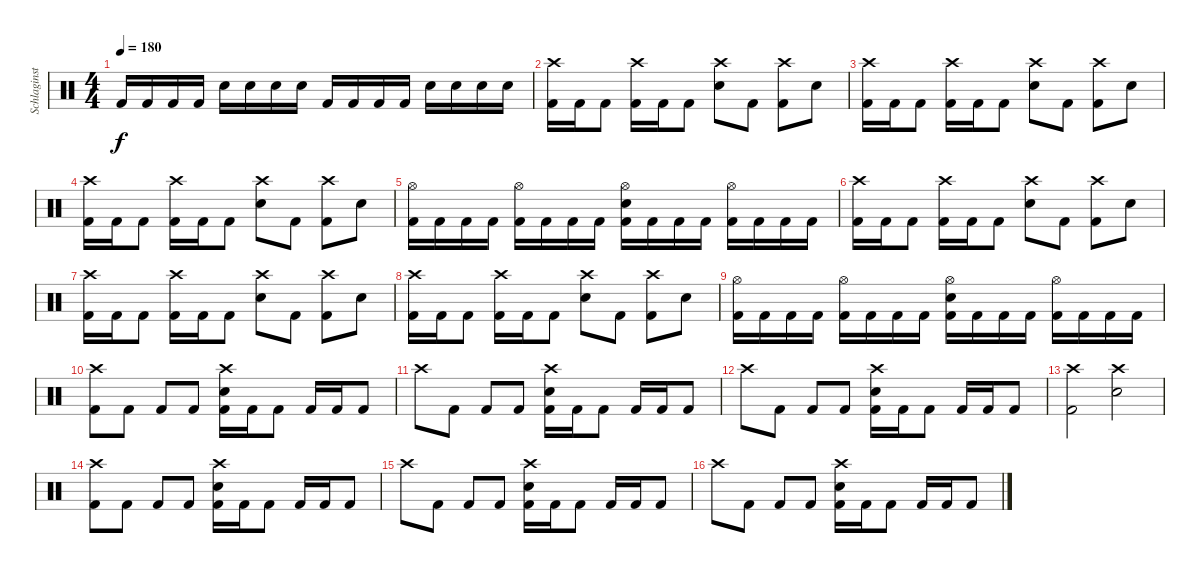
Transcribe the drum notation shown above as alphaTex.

\track ("Schlaginstrumente - Auswahl" "Schlaginst") {instrument percussion}
\staff {score}
\articulation defaults
\ts (4 4)
\tempo 180
\clef neutral
\ks c "Kick (hit) 2".16{dy f} "Kick (hit) 2".16 "Kick (hit) 2".16 "Kick (hit) 2".16 "Snare (hit) 2".16 "Snare (hit) 2".16 "Snare (hit) 2".16 "Snare (hit) 2".16 "Kick (hit) 2".16 "Kick (hit) 2".16 "Kick (hit) 2".16 "Kick (hit) 2".16 "Snare (hit) 2".16 "Snare (hit) 2".16 "Snare (hit) 2".16 "Snare (hit) 2".16
|
("Crash high (hit)" "Kick (hit) 2").16 "Kick (hit) 2".16 "Kick (hit) 2".8 ("Crash high (hit)" "Kick (hit) 2").16 "Kick (hit) 2".16 "Kick (hit) 2".8 ("Crash high (hit)" "Snare (hit) 2").8 "Kick (hit) 2".8 ("Crash high (hit)" "Kick (hit) 2").8 "Snare (hit) 2".8 |
("Crash high (hit)" "Kick (hit) 2").16 "Kick (hit) 2".16 "Kick (hit) 2".8 ("Crash high (hit)" "Kick (hit) 2").16 "Kick (hit) 2".16 "Kick (hit) 2".8 ("Crash high (hit)" "Snare (hit) 2").8 "Kick (hit) 2".8 ("Crash high (hit)" "Kick (hit) 2").8 "Snare (hit) 2".8 |
("Crash high (hit)" "Kick (hit) 2").16 "Kick (hit) 2".16 "Kick (hit) 2".8 ("Crash high (hit)" "Kick (hit) 2").16 "Kick (hit) 2".16 "Kick (hit) 2".8 ("Crash high (hit)" "Snare (hit) 2").8 "Kick (hit) 2".8 ("Crash high (hit)" "Kick (hit) 2").8 "Snare (hit) 2".8 |
("Hi-Hat (open)" "Kick (hit) 2").16 "Kick (hit) 2".16 "Kick (hit) 2".16 "Kick (hit) 2".16 ("Hi-Hat (open)" "Kick (hit) 2").16 "Kick (hit) 2".16 "Kick (hit) 2".16 "Kick (hit) 2".16 ("Hi-Hat (open)" "Snare (hit) 2" "Kick (hit) 2").16 "Kick (hit) 2".16 "Kick (hit) 2".16 "Kick (hit) 2".16 ("Hi-Hat (open)" "Kick (hit) 2").16 "Kick (hit) 2".16 "Kick (hit) 2".16 "Kick (hit) 2".16 |
("Crash high (hit)" "Kick (hit) 2").16 "Kick (hit) 2".16 "Kick (hit) 2".8 ("Crash high (hit)" "Kick (hit) 2").16 "Kick (hit) 2".16 "Kick (hit) 2".8 ("Crash high (hit)" "Snare (hit) 2").8 "Kick (hit) 2".8 ("Crash high (hit)" "Kick (hit) 2").8 "Snare (hit) 2".8 |
("Crash high (hit)" "Kick (hit) 2").16 "Kick (hit) 2".16 "Kick (hit) 2".8 ("Crash high (hit)" "Kick (hit) 2").16 "Kick (hit) 2".16 "Kick (hit) 2".8 ("Crash high (hit)" "Snare (hit) 2").8 "Kick (hit) 2".8 ("Crash high (hit)" "Kick (hit) 2").8 "Snare (hit) 2".8 |
("Crash high (hit)" "Kick (hit) 2").16 "Kick (hit) 2".16 "Kick (hit) 2".8 ("Crash high (hit)" "Kick (hit) 2").16 "Kick (hit) 2".16 "Kick (hit) 2".8 ("Crash high (hit)" "Snare (hit) 2").8 "Kick (hit) 2".8 ("Crash high (hit)" "Kick (hit) 2").8 "Snare (hit) 2".8 |
("Hi-Hat (open)" "Kick (hit) 2").16 "Kick (hit) 2".16 "Kick (hit) 2".16 "Kick (hit) 2".16 ("Hi-Hat (open)" "Kick (hit) 2").16 "Kick (hit) 2".16 "Kick (hit) 2".16 "Kick (hit) 2".16 ("Hi-Hat (open)" "Snare (hit) 2" "Kick (hit) 2").16 "Kick (hit) 2".16 "Kick (hit) 2".16 "Kick (hit) 2".16 ("Hi-Hat (open)" "Kick (hit) 2").16 "Kick (hit) 2".16 "Kick (hit) 2".16 "Kick (hit) 2".16 |
("Crash high (hit)" "Kick (hit) 2").8 "Kick (hit) 2".8 "Kick (hit) 2".8 "Kick (hit) 2".8 ("Crash high (hit)" "Snare (hit) 2" "Kick (hit) 2").16 "Kick (hit) 2".16 "Kick (hit) 2".8 "Kick (hit) 2".16 "Kick (hit) 2".16 "Kick (hit) 2".8 |
"Crash high (hit)".8 "Kick (hit) 2".8 "Kick (hit) 2".8 "Kick (hit) 2".8 ("Crash high (hit)" "Snare (hit) 2" "Kick (hit) 2").16 "Kick (hit) 2".16 "Kick (hit) 2".8 "Kick (hit) 2".16 "Kick (hit) 2".16 "Kick (hit) 2".8 |
"Crash high (hit)".8 "Kick (hit) 2".8 "Kick (hit) 2".8 "Kick (hit) 2".8 ("Crash high (hit)" "Snare (hit) 2" "Kick (hit) 2").16 "Kick (hit) 2".16 "Kick (hit) 2".8 "Kick (hit) 2".16 "Kick (hit) 2".16 "Kick (hit) 2".8 |
("Crash high (hit)" "Kick (hit) 2").2 ("Crash high (hit)" "Snare (hit) 2").2 |
("Crash high (hit)" "Kick (hit) 2").8 "Kick (hit) 2".8 "Kick (hit) 2".8 "Kick (hit) 2".8 ("Crash high (hit)" "Snare (hit) 2" "Kick (hit) 2").16 "Kick (hit) 2".16 "Kick (hit) 2".8 "Kick (hit) 2".16 "Kick (hit) 2".16 "Kick (hit) 2".8 |
"Crash high (hit)".8 "Kick (hit) 2".8 "Kick (hit) 2".8 "Kick (hit) 2".8 ("Crash high (hit)" "Snare (hit) 2" "Kick (hit) 2").16 "Kick (hit) 2".16 "Kick (hit) 2".8 "Kick (hit) 2".16 "Kick (hit) 2".16 "Kick (hit) 2".8 |
"Crash high (hit)".8 "Kick (hit) 2".8 "Kick (hit) 2".8 "Kick (hit) 2".8 ("Crash high (hit)" "Snare (hit) 2" "Kick (hit) 2").16 "Kick (hit) 2".16 "Kick (hit) 2".8 "Kick (hit) 2".16 "Kick (hit) 2".16 "Kick (hit) 2".8
